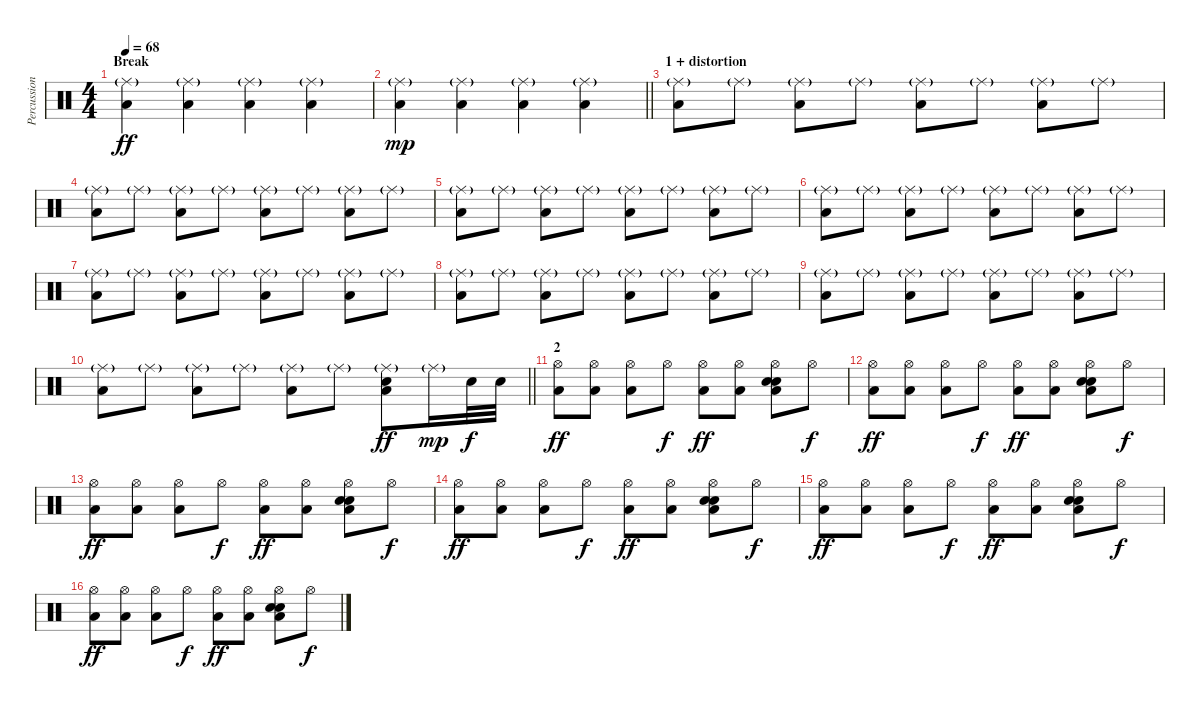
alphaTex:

\track ("Percussion" "Percussion") {instrument percussion}
\staff {score}
\articulation defaults
\ts (4 4)
\section ("" "Break")
\tempo 68
\clef neutral
\ks c
("Ride (middle)"{g} "Low Floor Tom (hit)").4{dy ff} ("Ride (middle)"{g} "Low Floor Tom (hit)").4 ("Ride (middle)"{g} "Low Floor Tom (hit)").4 ("Ride (middle)"{g} "Low Floor Tom (hit)").4 |
\barLineRight lightlight
("Ride (middle)"{g} "Low Floor Tom (hit)").4{dy mp} ("Ride (middle)"{g} "Low Floor Tom (hit)").4 ("Ride (middle)"{g} "Low Floor Tom (hit)").4 ("Ride (middle)"{g} "Low Floor Tom (hit)").4 |
\section ("" "1 + distortion")
("Ride (middle)"{g} "Low Floor Tom (hit)").8 "Ride (middle)"{g}.8 ("Ride (middle)"{g} "Low Floor Tom (hit)").8 "Ride (middle)"{g}.8 ("Ride (middle)"{g} "Low Floor Tom (hit)").8 "Ride (middle)"{g}.8 ("Ride (middle)"{g} "Low Floor Tom (hit)").8 "Ride (middle)"{g}.8 |
("Ride (middle)"{g} "Low Floor Tom (hit)").8 "Ride (middle)"{g}.8 ("Ride (middle)"{g} "Low Floor Tom (hit)").8 "Ride (middle)"{g}.8 ("Ride (middle)"{g} "Low Floor Tom (hit)").8 "Ride (middle)"{g}.8 ("Ride (middle)"{g} "Low Floor Tom (hit)").8 "Ride (middle)"{g}.8 |
("Ride (middle)"{g} "Low Floor Tom (hit)").8 "Ride (middle)"{g}.8 ("Ride (middle)"{g} "Low Floor Tom (hit)").8 "Ride (middle)"{g}.8 ("Ride (middle)"{g} "Low Floor Tom (hit)").8 "Ride (middle)"{g}.8 ("Ride (middle)"{g} "Low Floor Tom (hit)").8 "Ride (middle)"{g}.8 |
("Ride (middle)"{g} "Low Floor Tom (hit)").8 "Ride (middle)"{g}.8 ("Ride (middle)"{g} "Low Floor Tom (hit)").8 "Ride (middle)"{g}.8 ("Ride (middle)"{g} "Low Floor Tom (hit)").8 "Ride (middle)"{g}.8 ("Ride (middle)"{g} "Low Floor Tom (hit)").8 "Ride (middle)"{g}.8 |
("Ride (middle)"{g} "Low Floor Tom (hit)").8 "Ride (middle)"{g}.8 ("Ride (middle)"{g} "Low Floor Tom (hit)").8 "Ride (middle)"{g}.8 ("Ride (middle)"{g} "Low Floor Tom (hit)").8 "Ride (middle)"{g}.8 ("Ride (middle)"{g} "Low Floor Tom (hit)").8 "Ride (middle)"{g}.8 |
("Ride (middle)"{g} "Low Floor Tom (hit)").8 "Ride (middle)"{g}.8 ("Ride (middle)"{g} "Low Floor Tom (hit)").8 "Ride (middle)"{g}.8 ("Ride (middle)"{g} "Low Floor Tom (hit)").8 "Ride (middle)"{g}.8 ("Ride (middle)"{g} "Low Floor Tom (hit)").8 "Ride (middle)"{g}.8 |
("Ride (middle)"{g} "Low Floor Tom (hit)").8 "Ride (middle)"{g}.8 ("Ride (middle)"{g} "Low Floor Tom (hit)").8 "Ride (middle)"{g}.8 ("Ride (middle)"{g} "Low Floor Tom (hit)").8 "Ride (middle)"{g}.8 ("Ride (middle)"{g} "Low Floor Tom (hit)").8 "Ride (middle)"{g}.8 |
\barLineRight lightlight
("Ride (middle)"{g} "Low Floor Tom (hit)").8 "Ride (middle)"{g}.8 ("Ride (middle)"{g} "Low Floor Tom (hit)").8 "Ride (middle)"{g}.8 ("Ride (middle)"{g} "Low Floor Tom (hit)").8 "Ride (middle)"{g}.8 ("Ride (middle)"{g} "Snare (hit) 2" "Low Floor Tom (hit)").8{dy ff} "Ride (middle)"{g}.16{dy mp} "Snare (hit) 2".32{dy f} "Snare (hit) 2".32 |
\section ("" "2")
("Hi-Hat (open)" "Low Floor Tom (hit)").8{dy ff} ("Hi-Hat (open)" "Low Floor Tom (hit)").8 ("Hi-Hat (open)" "Low Floor Tom (hit)").8 "Hi-Hat (open)".8{dy f} ("Hi-Hat (open)" "Low Floor Tom (hit)").8{dy ff} ("Hi-Hat (open)" "Low Floor Tom (hit)").8 ("Hi-Hat (open)" "Electric Snare (hit)" "Snare (hit) 2" "Low Floor Tom (hit)").8 "Hi-Hat (open)".8{dy f} |
("Hi-Hat (open)" "Low Floor Tom (hit)").8{dy ff} ("Hi-Hat (open)" "Low Floor Tom (hit)").8 ("Hi-Hat (open)" "Low Floor Tom (hit)").8 "Hi-Hat (open)".8{dy f} ("Hi-Hat (open)" "Low Floor Tom (hit)").8{dy ff} ("Hi-Hat (open)" "Low Floor Tom (hit)").8 ("Hi-Hat (open)" "Electric Snare (hit)" "Snare (hit) 2" "Low Floor Tom (hit)").8 "Hi-Hat (open)".8{dy f} |
("Hi-Hat (open)" "Low Floor Tom (hit)").8{dy ff} ("Hi-Hat (open)" "Low Floor Tom (hit)").8 ("Hi-Hat (open)" "Low Floor Tom (hit)").8 "Hi-Hat (open)".8{dy f} ("Hi-Hat (open)" "Low Floor Tom (hit)").8{dy ff} ("Hi-Hat (open)" "Low Floor Tom (hit)").8 ("Hi-Hat (open)" "Electric Snare (hit)" "Snare (hit) 2" "Low Floor Tom (hit)").8 "Hi-Hat (open)".8{dy f} |
("Hi-Hat (open)" "Low Floor Tom (hit)").8{dy ff} ("Hi-Hat (open)" "Low Floor Tom (hit)").8 ("Hi-Hat (open)" "Low Floor Tom (hit)").8 "Hi-Hat (open)".8{dy f} ("Hi-Hat (open)" "Low Floor Tom (hit)").8{dy ff} ("Hi-Hat (open)" "Low Floor Tom (hit)").8 ("Hi-Hat (open)" "Electric Snare (hit)" "Snare (hit) 2" "Low Floor Tom (hit)").8 "Hi-Hat (open)".8{dy f} |
("Hi-Hat (open)" "Low Floor Tom (hit)").8{dy ff} ("Hi-Hat (open)" "Low Floor Tom (hit)").8 ("Hi-Hat (open)" "Low Floor Tom (hit)").8 "Hi-Hat (open)".8{dy f} ("Hi-Hat (open)" "Low Floor Tom (hit)").8{dy ff} ("Hi-Hat (open)" "Low Floor Tom (hit)").8 ("Hi-Hat (open)" "Electric Snare (hit)" "Snare (hit) 2" "Low Floor Tom (hit)").8 "Hi-Hat (open)".8{dy f} |
("Hi-Hat (open)" "Low Floor Tom (hit)").8{dy ff} ("Hi-Hat (open)" "Low Floor Tom (hit)").8 ("Hi-Hat (open)" "Low Floor Tom (hit)").8 "Hi-Hat (open)".8{dy f} ("Hi-Hat (open)" "Low Floor Tom (hit)").8{dy ff} ("Hi-Hat (open)" "Low Floor Tom (hit)").8 ("Hi-Hat (open)" "Electric Snare (hit)" "Snare (hit) 2" "Low Floor Tom (hit)").8 "Hi-Hat (open)".8{dy f}
